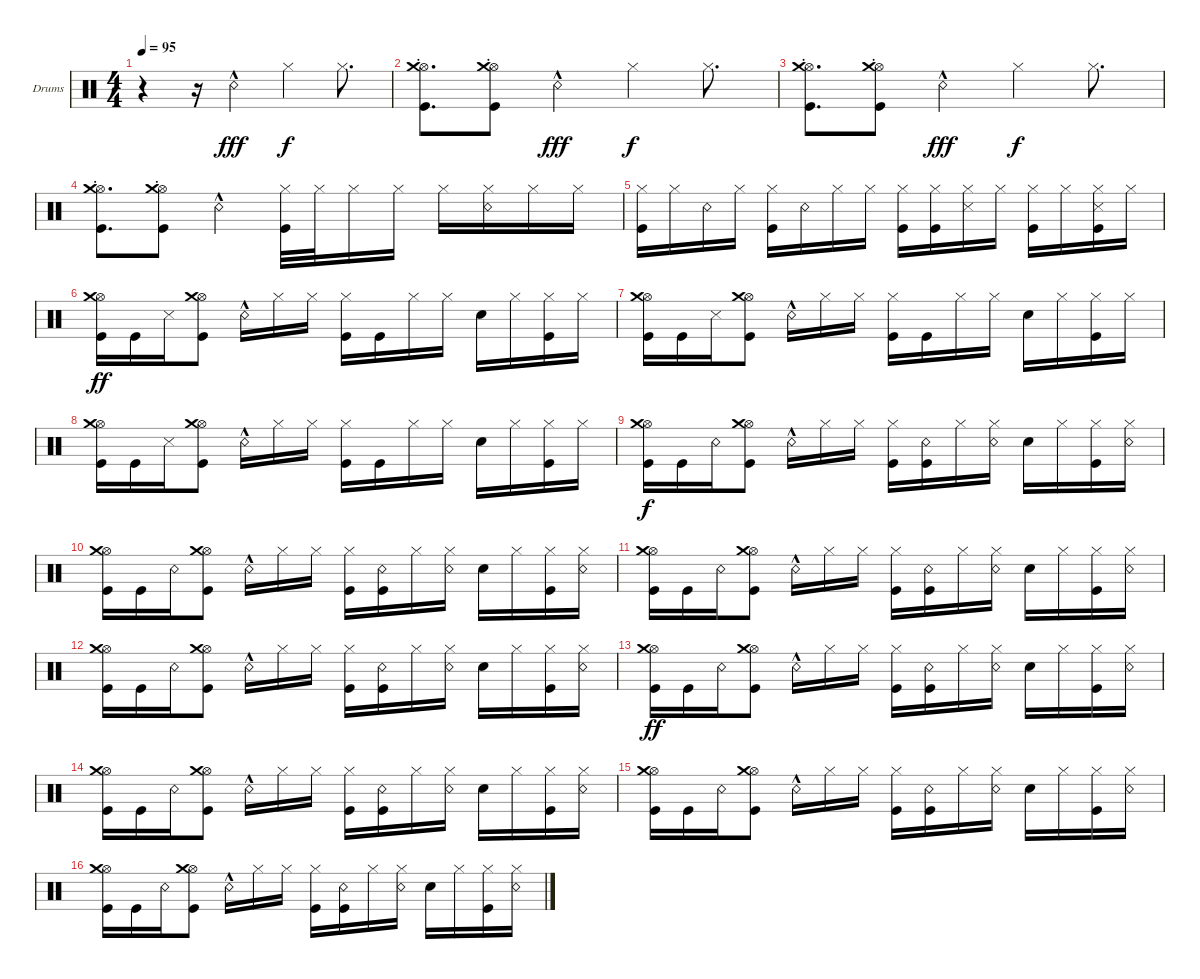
\bracketExtendMode groupsimilarinstruments
\firstSystemTrackNameOrientation horizontal
\otherSystemsTrackNameOrientation horizontal
\track ("Drumkit" "Drums") {solo instrument percussion}
\staff {score}
\articulation defaults
\ts (4 4)
\tempo 95
\clef neutral
\scale
0.474178
\ks c
r.4{dy fff} r.16 "Snare (rim shot)"{hac}.4 "Hi-Hat (closed)".4{dy f} "Hi-Hat (closed)".8{d} |
\scale
0.262911 ("Kick (hit)"{st} "Hi-Hat (open)"{st} "Crash medium (hit)"{st}).8{d} ("Kick (hit)"{st} "Hi-Hat (open)"{st} "Crash medium (hit)"{st}).8 "Snare (rim shot)"{hac}.4{dy fff} "Hi-Hat (closed)".4{dy f} "Hi-Hat (closed)".8{d} |
\scale
0.262911 ("Kick (hit)"{st} "Hi-Hat (open)"{st} "Crash medium (hit)"{st}).8{d} ("Kick (hit)"{st} "Hi-Hat (open)"{st} "Crash medium (hit)"{st}).8 "Snare (rim shot)"{hac}.4{dy fff} "Hi-Hat (closed)".4{dy f} "Hi-Hat (closed)".8{d} |
\scale
0.333333 ("Kick (hit)"{st} "Hi-Hat (open)"{st} "Crash medium (hit)"{st}).8{d} ("Kick (hit)"{st} "Hi-Hat (open)"{st} "Crash medium (hit)"{st}).8 "Snare (rim shot)"{hac}.4 ("Hi-Hat (closed)" "Kick (hit)").32 "Hi-Hat (closed)".32 "Hi-Hat (closed)".16 "Hi-Hat (closed)".16 "Hi-Hat (closed)".16 ("Hi-Hat (closed)" "Snare (rim shot)").16 "Hi-Hat (closed)".16 "Hi-Hat (closed)".16 |
\scale
0.333333 ("Hi-Hat (closed)" "Kick (hit)").16 "Hi-Hat (closed)".16 "Snare (rim shot)".16 "Hi-Hat (closed)".16 ("Hi-Hat (closed)" "Kick (hit)").16 "Snare (rim shot)".16 "Hi-Hat (closed)".16 "Hi-Hat (closed)".16 ("Hi-Hat (closed)" "Kick (hit)").16 ("Hi-Hat (closed)" "Kick (hit)").16 ("Hi-Hat (closed)" "Snare (side stick) 3").16 "Hi-Hat (closed)".16 ("Hi-Hat (closed)" "Kick (hit)").16 "Hi-Hat (closed)".16 ("Hi-Hat (closed)" "Kick (hit)" "Snare (side stick) 3").16 "Hi-Hat (closed)".16 |
\scale
0.333333 ("Kick (hit)" "Hi-Hat (open)" "Crash medium (hit)").16{dy ff} "Kick (hit)".16 "Snare (side stick) 3".16 ("Kick (hit)" "Hi-Hat (open)" "Crash medium (hit)").8 "Snare (rim shot)"{hac}.16 "Hi-Hat (closed)".16 "Hi-Hat (closed)".16 ("Hi-Hat (closed)" "Kick (hit)").16 "Kick (hit)".16 "Hi-Hat (closed)".16 "Hi-Hat (closed)".16 "Snare (hit) 2".16 "Hi-Hat (closed)".16 ("Hi-Hat (closed)" "Kick (hit)").16 "Hi-Hat (closed)".16 |
\scale
0.333333 ("Kick (hit)" "Hi-Hat (open)" "Crash medium (hit)").16 "Kick (hit)".16 "Snare (side stick) 3".16 ("Kick (hit)" "Hi-Hat (open)" "Crash medium (hit)").8 "Snare (rim shot)"{hac}.16 "Hi-Hat (closed)".16 "Hi-Hat (closed)".16 ("Hi-Hat (closed)" "Kick (hit)").16 "Kick (hit)".16 "Hi-Hat (closed)".16 "Hi-Hat (closed)".16 "Snare (hit) 2".16 "Hi-Hat (closed)".16 ("Hi-Hat (closed)" "Kick (hit)").16 "Hi-Hat (closed)".16 |
\scale
0.333333 ("Kick (hit)" "Hi-Hat (open)" "Crash medium (hit)").16 "Kick (hit)".16 "Snare (side stick) 3".16 ("Kick (hit)" "Hi-Hat (open)" "Crash medium (hit)").8 "Snare (rim shot)"{hac}.16 "Hi-Hat (closed)".16 "Hi-Hat (closed)".16 ("Hi-Hat (closed)" "Kick (hit)").16 "Kick (hit)".16 "Hi-Hat (closed)".16 "Hi-Hat (closed)".16 "Snare (hit) 2".16 "Hi-Hat (closed)".16 ("Hi-Hat (closed)" "Kick (hit)").16 "Hi-Hat (closed)".16 |
\scale
0.333333 ("Kick (hit)" "Hi-Hat (open)" "Crash medium (hit)").16{dy f} "Kick (hit)".16 "Snare (rim shot)".16 ("Kick (hit)" "Hi-Hat (open)" "Crash medium (hit)").8 "Snare (rim shot)"{hac}.16 "Hi-Hat (closed)".16 "Hi-Hat (closed)".16 ("Hi-Hat (closed)" "Kick (hit)").16 ("Kick (hit)" "Snare (rim shot)").16 "Hi-Hat (closed)".16 ("Hi-Hat (closed)" "Snare (rim shot)").16 "Snare (hit) 2".16 "Hi-Hat (closed)".16 ("Hi-Hat (closed)" "Kick (hit)").16 ("Hi-Hat (closed)" "Snare (rim shot)").16 |
\scale
0.333333 ("Kick (hit)" "Hi-Hat (open)" "Crash medium (hit)").16 "Kick (hit)".16 "Snare (rim shot)".16 ("Kick (hit)" "Hi-Hat (open)" "Crash medium (hit)").8 "Snare (rim shot)"{hac}.16 "Hi-Hat (closed)".16 "Hi-Hat (closed)".16 ("Hi-Hat (closed)" "Kick (hit)").16 ("Kick (hit)" "Snare (rim shot)").16 "Hi-Hat (closed)".16 ("Hi-Hat (closed)" "Snare (rim shot)").16 "Snare (hit) 2".16 "Hi-Hat (closed)".16 ("Hi-Hat (closed)" "Kick (hit)").16 ("Hi-Hat (closed)" "Snare (rim shot)").16 |
\scale
0.333333 ("Kick (hit)" "Hi-Hat (open)" "Crash medium (hit)").16 "Kick (hit)".16 "Snare (rim shot)".16 ("Kick (hit)" "Hi-Hat (open)" "Crash medium (hit)").8 "Snare (rim shot)"{hac}.16 "Hi-Hat (closed)".16 "Hi-Hat (closed)".16 ("Hi-Hat (closed)" "Kick (hit)").16 ("Kick (hit)" "Snare (rim shot)").16 "Hi-Hat (closed)".16 ("Hi-Hat (closed)" "Snare (rim shot)").16 "Snare (hit) 2".16 "Hi-Hat (closed)".16 ("Hi-Hat (closed)" "Kick (hit)").16 ("Hi-Hat (closed)" "Snare (rim shot)").16 |
\scale
0.333333 ("Kick (hit)" "Hi-Hat (open)" "Crash medium (hit)").16 "Kick (hit)".16 "Snare (rim shot)".16 ("Kick (hit)" "Hi-Hat (open)" "Crash medium (hit)").8 "Snare (rim shot)"{hac}.16 "Hi-Hat (closed)".16 "Hi-Hat (closed)".16 ("Hi-Hat (closed)" "Kick (hit)").16 ("Kick (hit)" "Snare (rim shot)").16 "Hi-Hat (closed)".16 ("Hi-Hat (closed)" "Snare (rim shot)").16 "Snare (hit) 2".16 "Hi-Hat (closed)".16 ("Hi-Hat (closed)" "Kick (hit)").16 ("Hi-Hat (closed)" "Snare (rim shot)").16 |
\scale
0.333333 ("Kick (hit)" "Hi-Hat (open)" "Crash medium (hit)").16{dy ff} "Kick (hit)".16 "Snare (rim shot)".16 ("Kick (hit)" "Hi-Hat (open)" "Crash medium (hit)").8 "Snare (rim shot)"{hac}.16 "Hi-Hat (closed)".16 "Hi-Hat (closed)".16 ("Hi-Hat (closed)" "Kick (hit)").16 ("Kick (hit)" "Snare (rim shot)").16 "Hi-Hat (closed)".16 ("Hi-Hat (closed)" "Snare (rim shot)").16 "Snare (hit) 2".16 "Hi-Hat (closed)".16 ("Hi-Hat (closed)" "Kick (hit)").16 ("Hi-Hat (closed)" "Snare (rim shot)").16 |
\scale
0.333333 ("Kick (hit)" "Hi-Hat (open)" "Crash medium (hit)").16 "Kick (hit)".16 "Snare (rim shot)".16 ("Kick (hit)" "Hi-Hat (open)" "Crash medium (hit)").8 "Snare (rim shot)"{hac}.16 "Hi-Hat (closed)".16 "Hi-Hat (closed)".16 ("Hi-Hat (closed)" "Kick (hit)").16 ("Kick (hit)" "Snare (rim shot)").16 "Hi-Hat (closed)".16 ("Hi-Hat (closed)" "Snare (rim shot)").16 "Snare (hit) 2".16 "Hi-Hat (closed)".16 ("Hi-Hat (closed)" "Kick (hit)").16 ("Hi-Hat (closed)" "Snare (rim shot)").16 |
\scale
0.333333 ("Kick (hit)" "Hi-Hat (open)" "Crash medium (hit)").16 "Kick (hit)".16 "Snare (rim shot)".16 ("Kick (hit)" "Hi-Hat (open)" "Crash medium (hit)").8 "Snare (rim shot)"{hac}.16 "Hi-Hat (closed)".16 "Hi-Hat (closed)".16 ("Hi-Hat (closed)" "Kick (hit)").16 ("Kick (hit)" "Snare (rim shot)").16 "Hi-Hat (closed)".16 ("Hi-Hat (closed)" "Snare (rim shot)").16 "Snare (hit) 2".16 "Hi-Hat (closed)".16 ("Hi-Hat (closed)" "Kick (hit)").16 ("Hi-Hat (closed)" "Snare (rim shot)").16 |
\scale
0.333333 ("Kick (hit)" "Hi-Hat (open)" "Crash medium (hit)").16 "Kick (hit)".16 "Snare (rim shot)".16 ("Kick (hit)" "Hi-Hat (open)" "Crash medium (hit)").8 "Snare (rim shot)"{hac}.16 "Hi-Hat (closed)".16 "Hi-Hat (closed)".16 ("Hi-Hat (closed)" "Kick (hit)").16 ("Kick (hit)" "Snare (rim shot)").16 "Hi-Hat (closed)".16 ("Hi-Hat (closed)" "Snare (rim shot)").16 "Snare (hit) 2".16 "Hi-Hat (closed)".16 ("Hi-Hat (closed)" "Kick (hit)").16 ("Hi-Hat (closed)" "Snare (rim shot)").16
